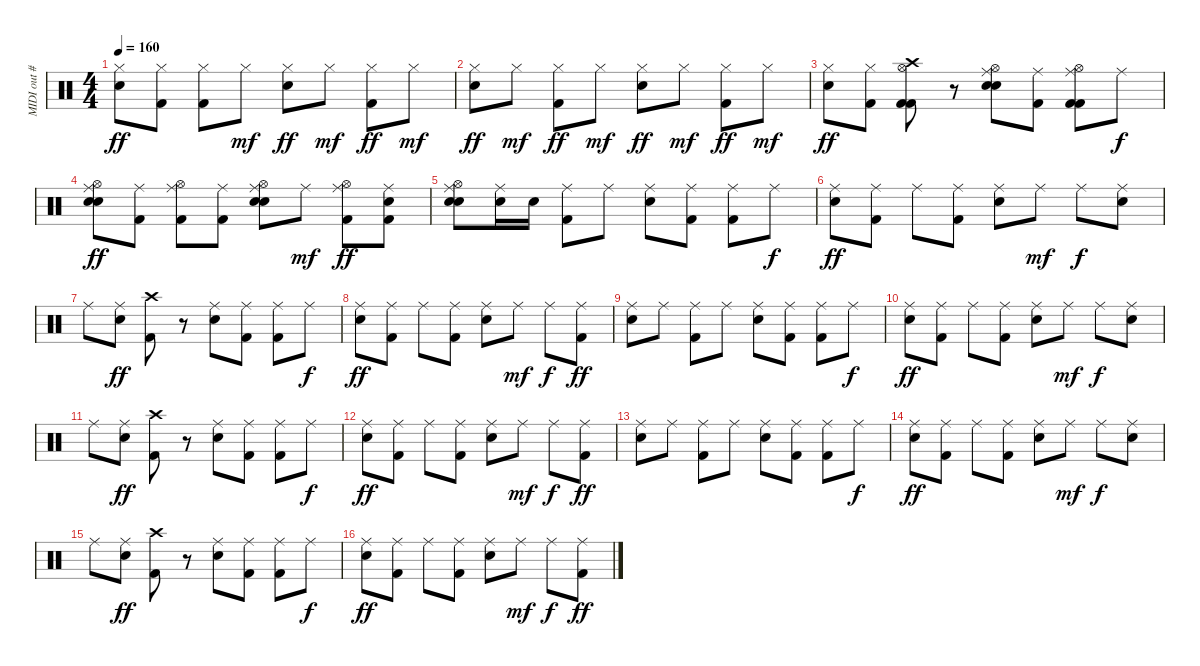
\track ("MIDI out #4" "MIDI out #") {instrument percussion}
\staff {score}
\articulation defaults
\ts (4 4)
\tempo 160
\clef neutral
\ks c
("Hi-Hat (closed)" "Snare (hit) 2").8{dy ff} ("Hi-Hat (closed)" "Kick (hit) 2").8 ("Hi-Hat (closed)" "Kick (hit) 2").8 "Hi-Hat (closed)".8{dy mf} ("Hi-Hat (closed)" "Snare (hit) 2").8{dy ff} "Hi-Hat (closed)".8{dy mf} ("Hi-Hat (closed)" "Kick (hit) 2").8{dy ff} "Hi-Hat (closed)".8{dy mf} |
("Hi-Hat (closed)" "Snare (hit) 2").8{dy ff} "Hi-Hat (closed)".8{dy mf} ("Hi-Hat (closed)" "Kick (hit) 2").8{dy ff} "Hi-Hat (closed)".8{dy mf} ("Hi-Hat (closed)" "Snare (hit) 2").8{dy ff} "Hi-Hat (closed)".8{dy mf} ("Hi-Hat (closed)" "Kick (hit) 2").8{dy ff} "Hi-Hat (closed)".8{dy mf} |
("Hi-Hat (closed)" "Snare (hit) 2").8{dy ff} ("Hi-Hat (closed)" "Kick (hit) 2").8 ("Hi-Hat (open)" "Kick (hit) 2" "Crash high (hit)" "Kick (hit) 2").8 r.8 ("Hi-Hat (open)" "Snare (hit) 2" "Ride (middle)" "Snare (hit) 2").8 ("Ride (middle)" "Kick (hit) 2").8 ("Hi-Hat (open)" "Kick (hit) 2" "Ride (middle)" "Kick (hit) 2").8 "Ride (middle)".8{dy f} |
("Hi-Hat (open)" "Snare (hit) 2" "Ride (middle)" "Snare (hit) 2").8{dy ff} ("Ride (middle)" "Kick (hit) 2").8 ("Hi-Hat (open)" "Kick (hit) 2" "Ride (middle)").8 ("Ride (middle)" "Kick (hit) 2").8 ("Hi-Hat (open)" "Snare (hit) 2" "Ride (middle)" "Snare (hit) 2").8 "Ride (middle)".8{dy mf} ("Hi-Hat (open)" "Kick (hit) 2" "Ride (middle)").8{dy ff} ("Snare (hit) 2" "Ride (middle)" "Kick (hit) 2").8 |
("Snare (hit) 2" "Hi-Hat (open)" "Ride (middle)" "Snare (hit) 2").8 ("Snare (hit) 2" "Ride (middle)").16 "Snare (hit) 2".16 ("Ride (middle)" "Kick (hit) 2").8 "Ride (middle)".8 ("Ride (middle)" "Snare (hit) 2").8 ("Ride (middle)" "Kick (hit) 2").8 ("Ride (middle)" "Kick (hit) 2").8 "Ride (middle)".8{dy f} |
("Ride (middle)" "Snare (hit) 2").8{dy ff} ("Ride (middle)" "Kick (hit) 2").8 "Ride (middle)".8 ("Ride (middle)" "Kick (hit) 2").8 ("Ride (middle)" "Snare (hit) 2").8 "Ride (middle)".8{dy mf} "Ride (middle)".8{dy f} ("Snare (hit) 2" "Ride (middle)").8 |
"Ride (middle)".8 ("Snare (hit) 2" "Ride (middle)").8{dy ff} ("Crash high (hit)" "Kick (hit) 2").8 r.8 ("Ride (middle)" "Snare (hit) 2").8 ("Ride (middle)" "Kick (hit) 2").8 ("Ride (middle)" "Kick (hit) 2").8 "Ride (middle)".8{dy f} |
("Ride (middle)" "Snare (hit) 2").8{dy ff} ("Ride (middle)" "Kick (hit) 2").8 "Ride (middle)".8 ("Ride (middle)" "Kick (hit) 2").8 ("Ride (middle)" "Snare (hit) 2").8 "Ride (middle)".8{dy mf} "Ride (middle)".8{dy f} ("Ride (middle)" "Kick (hit) 2").8{dy ff} |
("Ride (middle)" "Snare (hit) 2").8 "Ride (middle)".8 ("Ride (middle)" "Kick (hit) 2").8 "Ride (middle)".8 ("Ride (middle)" "Snare (hit) 2").8 ("Ride (middle)" "Kick (hit) 2").8 ("Ride (middle)" "Kick (hit) 2").8 "Ride (middle)".8{dy f} |
("Ride (middle)" "Snare (hit) 2").8{dy ff} ("Ride (middle)" "Kick (hit) 2").8 "Ride (middle)".8 ("Ride (middle)" "Kick (hit) 2").8 ("Ride (middle)" "Snare (hit) 2").8 "Ride (middle)".8{dy mf} "Ride (middle)".8{dy f} ("Snare (hit) 2" "Ride (middle)").8 |
"Ride (middle)".8 ("Snare (hit) 2" "Ride (middle)").8{dy ff} ("Crash high (hit)" "Kick (hit) 2").8 r.8 ("Ride (middle)" "Snare (hit) 2").8 ("Ride (middle)" "Kick (hit) 2").8 ("Ride (middle)" "Kick (hit) 2").8 "Ride (middle)".8{dy f} |
("Ride (middle)" "Snare (hit) 2").8{dy ff} ("Ride (middle)" "Kick (hit) 2").8 "Ride (middle)".8 ("Ride (middle)" "Kick (hit) 2").8 ("Ride (middle)" "Snare (hit) 2").8 "Ride (middle)".8{dy mf} "Ride (middle)".8{dy f} ("Ride (middle)" "Kick (hit) 2").8{dy ff} |
("Ride (middle)" "Snare (hit) 2").8 "Ride (middle)".8 ("Ride (middle)" "Kick (hit) 2").8 "Ride (middle)".8 ("Ride (middle)" "Snare (hit) 2").8 ("Ride (middle)" "Kick (hit) 2").8 ("Ride (middle)" "Kick (hit) 2").8 "Ride (middle)".8{dy f} |
("Ride (middle)" "Snare (hit) 2").8{dy ff} ("Ride (middle)" "Kick (hit) 2").8 "Ride (middle)".8 ("Ride (middle)" "Kick (hit) 2").8 ("Ride (middle)" "Snare (hit) 2").8 "Ride (middle)".8{dy mf} "Ride (middle)".8{dy f} ("Snare (hit) 2" "Ride (middle)").8 |
"Ride (middle)".8 ("Snare (hit) 2" "Ride (middle)").8{dy ff} ("Crash high (hit)" "Kick (hit) 2").8 r.8 ("Ride (middle)" "Snare (hit) 2").8 ("Ride (middle)" "Kick (hit) 2").8 ("Ride (middle)" "Kick (hit) 2").8 "Ride (middle)".8{dy f} |
("Ride (middle)" "Snare (hit) 2").8{dy ff} ("Ride (middle)" "Kick (hit) 2").8 "Ride (middle)".8 ("Ride (middle)" "Kick (hit) 2").8 ("Ride (middle)" "Snare (hit) 2").8 "Ride (middle)".8{dy mf} "Ride (middle)".8{dy f} ("Ride (middle)" "Kick (hit) 2").8{dy ff}
